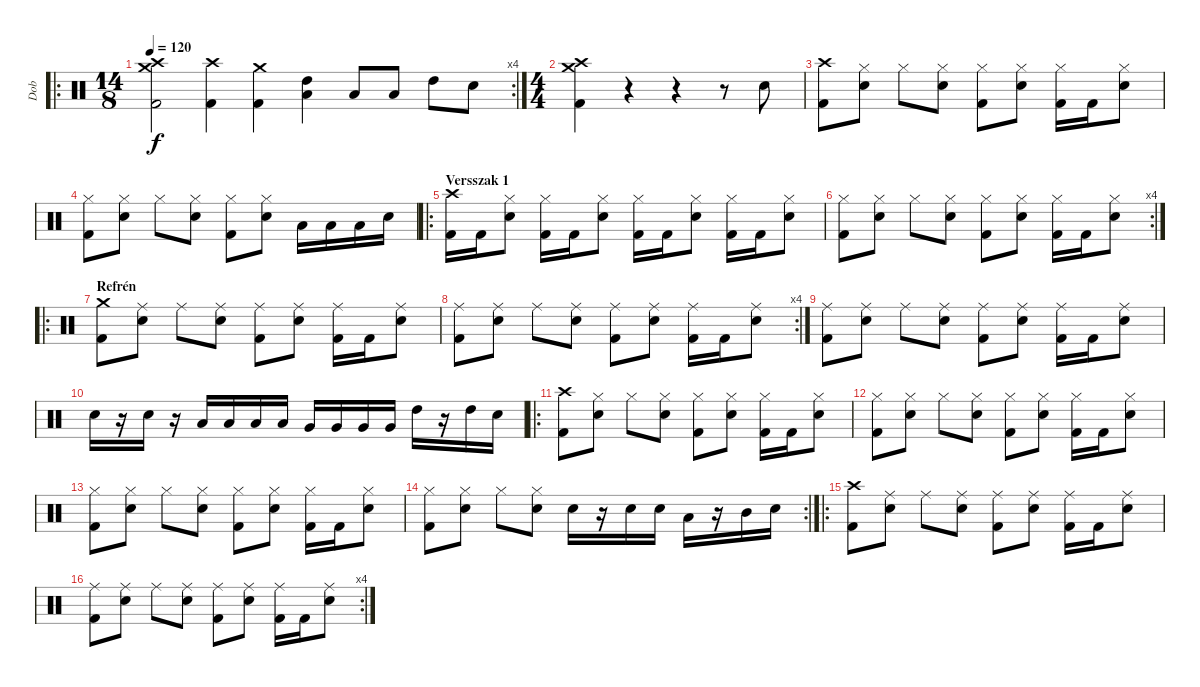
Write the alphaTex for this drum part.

\track ("Dob" "Dob") {instrument percussion}
\staff {score}
\articulation defaults
\ro
\rc 4
\ts (14 8)
\tempo 120
\clef neutral
\ks c
("Crash high (hit)" "Crash medium (hit)" "Kick (hit) 2").2{dy f} ("Crash high (hit)" "Kick (hit) 2").4 ("Crash medium (hit)" "Kick (hit) 2").4 ("Low Tom (hit)" "High Tom (hit)").4 "Low Tom (hit)".8 "Low Tom (hit)".8 "High Tom (hit)".8 "Snare (hit) 2".8 |
\ts (4 4)
("Crash high (hit)" "Crash medium (hit)" "Kick (hit) 2").4 r.4 r.4 r.8 "Snare (hit) 2".8 |
("Crash high (hit)" "Kick (hit) 2").8 ("Hi-Hat (closed)" "Snare (hit) 2").8 "Hi-Hat (closed)".8 ("Hi-Hat (closed)" "Snare (hit) 2").8 ("Hi-Hat (closed)" "Kick (hit) 2").8 ("Hi-Hat (closed)" "Snare (hit) 2").8 ("Hi-Hat (closed)" "Kick (hit) 2").16 "Kick (hit) 2".16 ("Hi-Hat (closed)" "Snare (hit) 2").8 |
("Hi-Hat (closed)" "Kick (hit) 2").8 ("Hi-Hat (closed)" "Snare (hit) 2").8 "Hi-Hat (closed)".8 ("Hi-Hat (closed)" "Snare (hit) 2").8 ("Hi-Hat (closed)" "Kick (hit) 2").8 ("Hi-Hat (closed)" "Snare (hit) 2").8 "Low Tom (hit)".16 "Low Tom (hit)".16 "Low Tom (hit)".16 "Snare (hit) 2".16 |
\ro
\section ("" "Versszak 1")
("Crash high (hit)" "Kick (hit) 2").16 "Kick (hit) 2".16 ("Hi-Hat (closed)" "Snare (hit) 2").8 ("Hi-Hat (closed)" "Kick (hit) 2").16 "Kick (hit) 2".16 ("Hi-Hat (closed)" "Snare (hit) 2").8 ("Hi-Hat (closed)" "Kick (hit) 2").16 "Kick (hit) 2".16 ("Hi-Hat (closed)" "Snare (hit) 2").8 ("Hi-Hat (closed)" "Kick (hit) 2").16 "Kick (hit) 2".16 ("Hi-Hat (closed)" "Snare (hit) 2").8 |
\rc 4
("Hi-Hat (closed)" "Kick (hit) 2").8 ("Hi-Hat (closed)" "Snare (hit) 2").8 "Hi-Hat (closed)".8 ("Hi-Hat (closed)" "Snare (hit) 2").8 ("Hi-Hat (closed)" "Kick (hit) 2").8 ("Hi-Hat (closed)" "Snare (hit) 2").8 ("Hi-Hat (closed)" "Kick (hit) 2").16 "Kick (hit) 2".16 ("Hi-Hat (closed)" "Snare (hit) 2").8 |
\ro
\section ("" "Refrén")
("Crash medium (hit)" "Kick (hit) 2").8 ("Ride (middle)" "Snare (hit) 2").8 "Ride (middle)".8 ("Ride (middle)" "Snare (hit) 2").8 ("Ride (middle)" "Kick (hit) 2").8 ("Ride (middle)" "Snare (hit) 2").8 ("Ride (middle)" "Kick (hit) 2").16 "Kick (hit) 2".16 ("Ride (middle)" "Snare (hit) 2").8 |
\rc 4
("Ride (middle)" "Kick (hit) 2").8 ("Ride (middle)" "Snare (hit) 2").8 "Ride (middle)".8 ("Ride (middle)" "Snare (hit) 2").8 ("Ride (middle)" "Kick (hit) 2").8 ("Ride (middle)" "Snare (hit) 2").8 ("Ride (middle)" "Kick (hit) 2").16 "Kick (hit) 2".16 ("Ride (middle)" "Snare (hit) 2").8 |
("Ride (middle)" "Kick (hit) 2").8 ("Ride (middle)" "Snare (hit) 2").8 "Ride (middle)".8 ("Ride (middle)" "Snare (hit) 2").8 ("Ride (middle)" "Kick (hit) 2").8 ("Ride (middle)" "Snare (hit) 2").8 ("Ride (middle)" "Kick (hit) 2").16 "Kick (hit) 2".16 ("Ride (middle)" "Snare (hit) 2").8 |
"Snare (hit) 2".16 r.16 "Snare (hit) 2".16 r.16 "Low Tom (hit)".16 "Low Tom (hit)".16 "Low Tom (hit)".16 "Low Tom (hit)".16 "Very Low Tom (hit)".16 "Very Low Tom (hit)".16 "Very Low Tom (hit)".16 "Very Low Tom (hit)".16 "High Tom (hit)".16 r.16 "High Tom (hit)".16 "Snare (hit) 2".16 |
\ro
("Crash high (hit)" "Kick (hit) 2").8 ("Hi-Hat (closed)" "Snare (hit) 2").8 "Hi-Hat (closed)".8 ("Hi-Hat (closed)" "Snare (hit) 2").8 ("Hi-Hat (closed)" "Kick (hit) 2").8 ("Hi-Hat (closed)" "Snare (hit) 2").8 ("Hi-Hat (closed)" "Kick (hit) 2").16 "Kick (hit) 2".16 ("Hi-Hat (closed)" "Snare (hit) 2").8 |
("Hi-Hat (closed)" "Kick (hit) 2").8 ("Hi-Hat (closed)" "Snare (hit) 2").8 "Hi-Hat (closed)".8 ("Hi-Hat (closed)" "Snare (hit) 2").8 ("Hi-Hat (closed)" "Kick (hit) 2").8 ("Hi-Hat (closed)" "Snare (hit) 2").8 ("Hi-Hat (closed)" "Kick (hit) 2").16 "Kick (hit) 2".16 ("Hi-Hat (closed)" "Snare (hit) 2").8 |
("Hi-Hat (closed)" "Kick (hit) 2").8 ("Hi-Hat (closed)" "Snare (hit) 2").8 "Hi-Hat (closed)".8 ("Hi-Hat (closed)" "Snare (hit) 2").8 ("Hi-Hat (closed)" "Kick (hit) 2").8 ("Hi-Hat (closed)" "Snare (hit) 2").8 ("Hi-Hat (closed)" "Kick (hit) 2").16 "Kick (hit) 2".16 ("Hi-Hat (closed)" "Snare (hit) 2").8 |
\rc 2
("Hi-Hat (closed)" "Kick (hit) 2").8 ("Hi-Hat (closed)" "Snare (hit) 2").8 "Hi-Hat (closed)".8 ("Hi-Hat (closed)" "Snare (hit) 2").8 "Snare (hit) 2".16 r.16 "Snare (hit) 2".16 "Snare (hit) 2".16 "Low Tom (hit)".16 r.16 "Mid Tom (hit)".16 "Snare (hit) 2".16 |
\ro
("Crash high (hit)" "Kick (hit) 2").8 ("Ride (middle)" "Snare (hit) 2").8 "Ride (middle)".8 ("Ride (middle)" "Snare (hit) 2").8 ("Ride (middle)" "Kick (hit) 2").8 ("Ride (middle)" "Snare (hit) 2").8 ("Ride (middle)" "Kick (hit) 2").16 "Kick (hit) 2".16 ("Ride (middle)" "Snare (hit) 2").8 |
\rc 4
("Ride (middle)" "Kick (hit) 2").8 ("Ride (middle)" "Snare (hit) 2").8 "Ride (middle)".8 ("Ride (middle)" "Snare (hit) 2").8 ("Ride (middle)" "Kick (hit) 2").8 ("Ride (middle)" "Snare (hit) 2").8 ("Ride (middle)" "Kick (hit) 2").16 "Kick (hit) 2".16 ("Ride (middle)" "Snare (hit) 2").8
